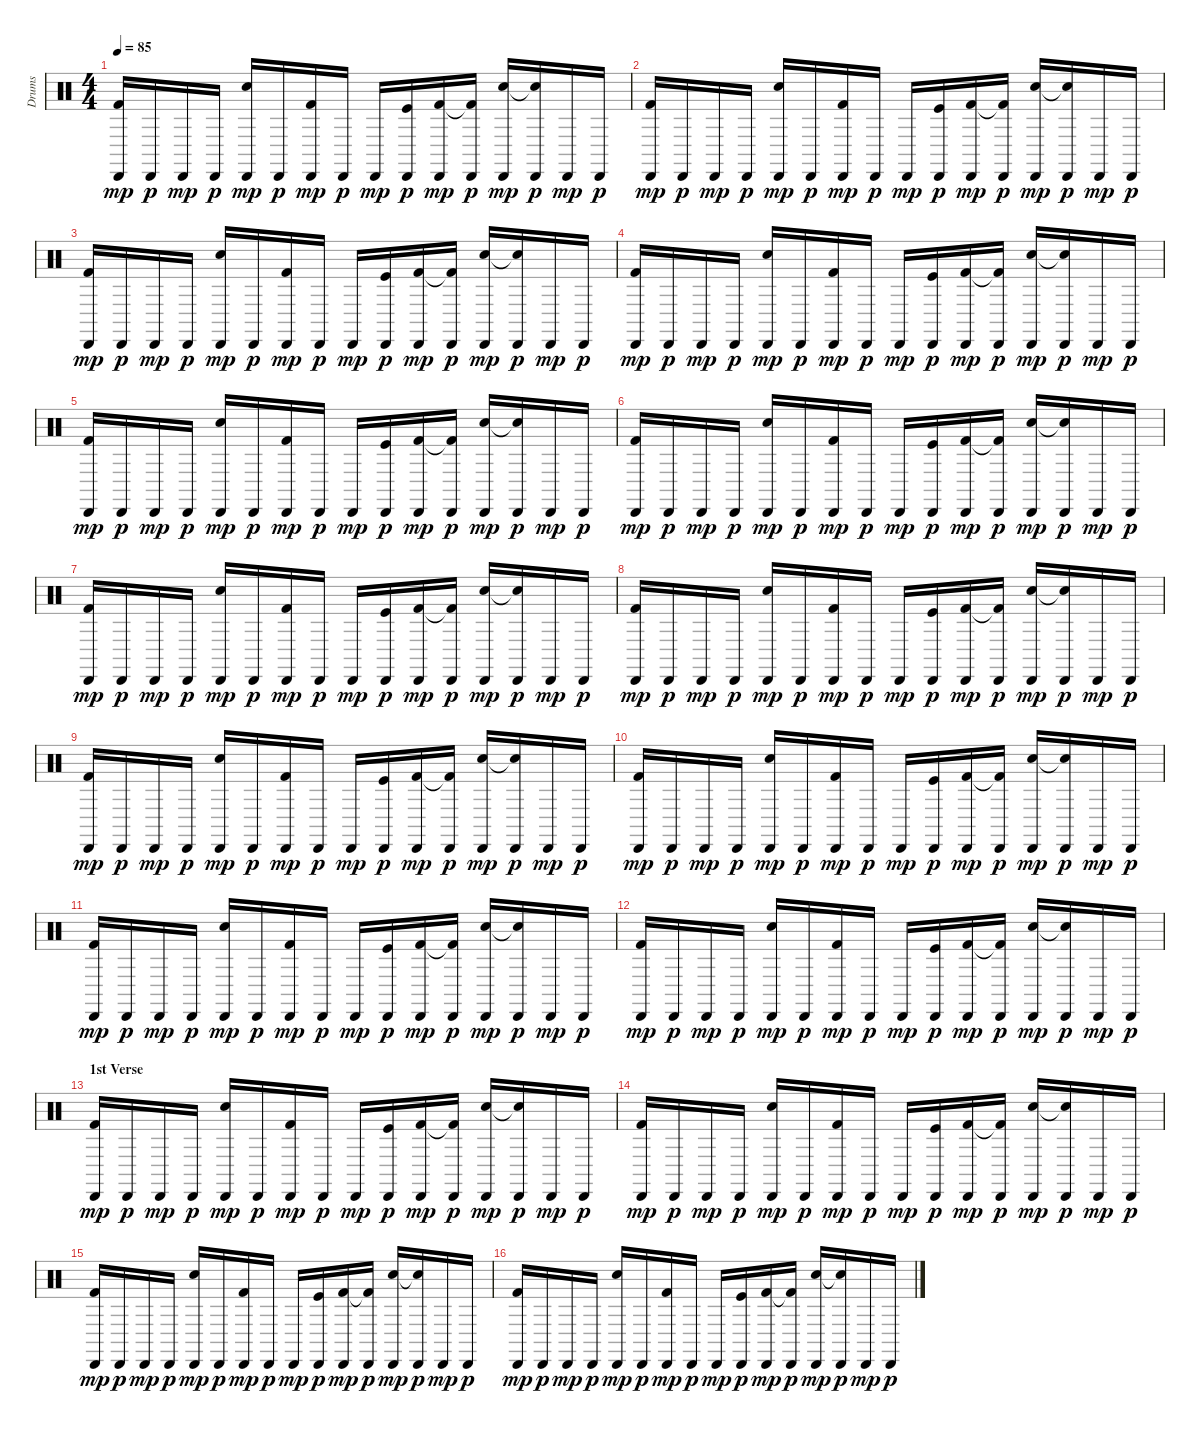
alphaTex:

\track ("Drums" "Drums") {instrument percussion}
\staff {score}
\articulation defaults
\ts (4 4)
\tempo 85
\clef neutral
\ks c
("Kick (hit) 2" "Cabasa (hit)").16{dy mp} "Cabasa (hit)".16{dy p} "Cabasa (hit)".16{dy mp} "Cabasa (hit)".16{dy p} ("Snare (hit) 2" "Cabasa (hit)").16{dy mp} "Cabasa (hit)".16{dy p} ("Kick (hit) 2" "Cabasa (hit)").16{dy mp} "Cabasa (hit)".16{dy p} "Cabasa (hit)".16{dy mp} ("Cabasa (hit)" "Kick (hit)").16{dy p} ("Kick (hit) 2" "Cabasa (hit)").16{dy mp} ("Kick (hit) 2"{t} "Cabasa (hit)").16{dy p} ("Snare (hit) 2" "Cabasa (hit)").16{dy mp} ("Snare (hit) 2"{t} "Cabasa (hit)").16{dy p} "Cabasa (hit)".16{dy mp} "Cabasa (hit)".16{dy p} |
("Kick (hit) 2" "Cabasa (hit)").16{dy mp} "Cabasa (hit)".16{dy p} "Cabasa (hit)".16{dy mp} "Cabasa (hit)".16{dy p} ("Snare (hit) 2" "Cabasa (hit)").16{dy mp} "Cabasa (hit)".16{dy p} ("Kick (hit) 2" "Cabasa (hit)").16{dy mp} "Cabasa (hit)".16{dy p} "Cabasa (hit)".16{dy mp} ("Cabasa (hit)" "Kick (hit)").16{dy p} ("Kick (hit) 2" "Cabasa (hit)").16{dy mp} ("Kick (hit) 2"{t} "Cabasa (hit)").16{dy p} ("Snare (hit) 2" "Cabasa (hit)").16{dy mp} ("Snare (hit) 2"{t} "Cabasa (hit)").16{dy p} "Cabasa (hit)".16{dy mp} "Cabasa (hit)".16{dy p} |
("Kick (hit) 2" "Cabasa (hit)").16{dy mp} "Cabasa (hit)".16{dy p} "Cabasa (hit)".16{dy mp} "Cabasa (hit)".16{dy p} ("Snare (hit) 2" "Cabasa (hit)").16{dy mp} "Cabasa (hit)".16{dy p} ("Kick (hit) 2" "Cabasa (hit)").16{dy mp} "Cabasa (hit)".16{dy p} "Cabasa (hit)".16{dy mp} ("Cabasa (hit)" "Kick (hit)").16{dy p} ("Kick (hit) 2" "Cabasa (hit)").16{dy mp} ("Kick (hit) 2"{t} "Cabasa (hit)").16{dy p} ("Snare (hit) 2" "Cabasa (hit)").16{dy mp} ("Snare (hit) 2"{t} "Cabasa (hit)").16{dy p} "Cabasa (hit)".16{dy mp} "Cabasa (hit)".16{dy p} |
("Kick (hit) 2" "Cabasa (hit)").16{dy mp} "Cabasa (hit)".16{dy p} "Cabasa (hit)".16{dy mp} "Cabasa (hit)".16{dy p} ("Snare (hit) 2" "Cabasa (hit)").16{dy mp} "Cabasa (hit)".16{dy p} ("Kick (hit) 2" "Cabasa (hit)").16{dy mp} "Cabasa (hit)".16{dy p} "Cabasa (hit)".16{dy mp} ("Cabasa (hit)" "Kick (hit)").16{dy p} ("Kick (hit) 2" "Cabasa (hit)").16{dy mp} ("Kick (hit) 2"{t} "Cabasa (hit)").16{dy p} ("Snare (hit) 2" "Cabasa (hit)").16{dy mp} ("Snare (hit) 2"{t} "Cabasa (hit)").16{dy p} "Cabasa (hit)".16{dy mp} "Cabasa (hit)".16{dy p} |
("Kick (hit) 2" "Cabasa (hit)").16{dy mp} "Cabasa (hit)".16{dy p} "Cabasa (hit)".16{dy mp} "Cabasa (hit)".16{dy p} ("Snare (hit) 2" "Cabasa (hit)").16{dy mp} "Cabasa (hit)".16{dy p} ("Kick (hit) 2" "Cabasa (hit)").16{dy mp} "Cabasa (hit)".16{dy p} "Cabasa (hit)".16{dy mp} ("Cabasa (hit)" "Kick (hit)").16{dy p} ("Kick (hit) 2" "Cabasa (hit)").16{dy mp} ("Kick (hit) 2"{t} "Cabasa (hit)").16{dy p} ("Snare (hit) 2" "Cabasa (hit)").16{dy mp} ("Snare (hit) 2"{t} "Cabasa (hit)").16{dy p} "Cabasa (hit)".16{dy mp} "Cabasa (hit)".16{dy p} |
("Kick (hit) 2" "Cabasa (hit)").16{dy mp} "Cabasa (hit)".16{dy p} "Cabasa (hit)".16{dy mp} "Cabasa (hit)".16{dy p} ("Snare (hit) 2" "Cabasa (hit)").16{dy mp} "Cabasa (hit)".16{dy p} ("Kick (hit) 2" "Cabasa (hit)").16{dy mp} "Cabasa (hit)".16{dy p} "Cabasa (hit)".16{dy mp} ("Cabasa (hit)" "Kick (hit)").16{dy p} ("Kick (hit) 2" "Cabasa (hit)").16{dy mp} ("Kick (hit) 2"{t} "Cabasa (hit)").16{dy p} ("Snare (hit) 2" "Cabasa (hit)").16{dy mp} ("Snare (hit) 2"{t} "Cabasa (hit)").16{dy p} "Cabasa (hit)".16{dy mp} "Cabasa (hit)".16{dy p} |
("Kick (hit) 2" "Cabasa (hit)").16{dy mp} "Cabasa (hit)".16{dy p} "Cabasa (hit)".16{dy mp} "Cabasa (hit)".16{dy p} ("Snare (hit) 2" "Cabasa (hit)").16{dy mp} "Cabasa (hit)".16{dy p} ("Kick (hit) 2" "Cabasa (hit)").16{dy mp} "Cabasa (hit)".16{dy p} "Cabasa (hit)".16{dy mp} ("Cabasa (hit)" "Kick (hit)").16{dy p} ("Kick (hit) 2" "Cabasa (hit)").16{dy mp} ("Kick (hit) 2"{t} "Cabasa (hit)").16{dy p} ("Snare (hit) 2" "Cabasa (hit)").16{dy mp} ("Snare (hit) 2"{t} "Cabasa (hit)").16{dy p} "Cabasa (hit)".16{dy mp} "Cabasa (hit)".16{dy p} |
("Kick (hit) 2" "Cabasa (hit)").16{dy mp} "Cabasa (hit)".16{dy p} "Cabasa (hit)".16{dy mp} "Cabasa (hit)".16{dy p} ("Snare (hit) 2" "Cabasa (hit)").16{dy mp} "Cabasa (hit)".16{dy p} ("Kick (hit) 2" "Cabasa (hit)").16{dy mp} "Cabasa (hit)".16{dy p} "Cabasa (hit)".16{dy mp} ("Cabasa (hit)" "Kick (hit)").16{dy p} ("Kick (hit) 2" "Cabasa (hit)").16{dy mp} ("Kick (hit) 2"{t} "Cabasa (hit)").16{dy p} ("Snare (hit) 2" "Cabasa (hit)").16{dy mp} ("Snare (hit) 2"{t} "Cabasa (hit)").16{dy p} "Cabasa (hit)".16{dy mp} "Cabasa (hit)".16{dy p} |
("Kick (hit) 2" "Cabasa (hit)").16{dy mp} "Cabasa (hit)".16{dy p} "Cabasa (hit)".16{dy mp} "Cabasa (hit)".16{dy p} ("Snare (hit) 2" "Cabasa (hit)").16{dy mp} "Cabasa (hit)".16{dy p} ("Kick (hit) 2" "Cabasa (hit)").16{dy mp} "Cabasa (hit)".16{dy p} "Cabasa (hit)".16{dy mp} ("Cabasa (hit)" "Kick (hit)").16{dy p} ("Kick (hit) 2" "Cabasa (hit)").16{dy mp} ("Kick (hit) 2"{t} "Cabasa (hit)").16{dy p} ("Snare (hit) 2" "Cabasa (hit)").16{dy mp} ("Snare (hit) 2"{t} "Cabasa (hit)").16{dy p} "Cabasa (hit)".16{dy mp} "Cabasa (hit)".16{dy p} |
("Kick (hit) 2" "Cabasa (hit)").16{dy mp} "Cabasa (hit)".16{dy p} "Cabasa (hit)".16{dy mp} "Cabasa (hit)".16{dy p} ("Snare (hit) 2" "Cabasa (hit)").16{dy mp} "Cabasa (hit)".16{dy p} ("Kick (hit) 2" "Cabasa (hit)").16{dy mp} "Cabasa (hit)".16{dy p} "Cabasa (hit)".16{dy mp} ("Cabasa (hit)" "Kick (hit)").16{dy p} ("Kick (hit) 2" "Cabasa (hit)").16{dy mp} ("Kick (hit) 2"{t} "Cabasa (hit)").16{dy p} ("Snare (hit) 2" "Cabasa (hit)").16{dy mp} ("Snare (hit) 2"{t} "Cabasa (hit)").16{dy p} "Cabasa (hit)".16{dy mp} "Cabasa (hit)".16{dy p} |
("Kick (hit) 2" "Cabasa (hit)").16{dy mp} "Cabasa (hit)".16{dy p} "Cabasa (hit)".16{dy mp} "Cabasa (hit)".16{dy p} ("Snare (hit) 2" "Cabasa (hit)").16{dy mp} "Cabasa (hit)".16{dy p} ("Kick (hit) 2" "Cabasa (hit)").16{dy mp} "Cabasa (hit)".16{dy p} "Cabasa (hit)".16{dy mp} ("Cabasa (hit)" "Kick (hit)").16{dy p} ("Kick (hit) 2" "Cabasa (hit)").16{dy mp} ("Kick (hit) 2"{t} "Cabasa (hit)").16{dy p} ("Snare (hit) 2" "Cabasa (hit)").16{dy mp} ("Snare (hit) 2"{t} "Cabasa (hit)").16{dy p} "Cabasa (hit)".16{dy mp} "Cabasa (hit)".16{dy p} |
("Kick (hit) 2" "Cabasa (hit)").16{dy mp} "Cabasa (hit)".16{dy p} "Cabasa (hit)".16{dy mp} "Cabasa (hit)".16{dy p} ("Snare (hit) 2" "Cabasa (hit)").16{dy mp} "Cabasa (hit)".16{dy p} ("Kick (hit) 2" "Cabasa (hit)").16{dy mp} "Cabasa (hit)".16{dy p} "Cabasa (hit)".16{dy mp} ("Cabasa (hit)" "Kick (hit)").16{dy p} ("Kick (hit) 2" "Cabasa (hit)").16{dy mp} ("Kick (hit) 2"{t} "Cabasa (hit)").16{dy p} ("Snare (hit) 2" "Cabasa (hit)").16{dy mp} ("Snare (hit) 2"{t} "Cabasa (hit)").16{dy p} "Cabasa (hit)".16{dy mp} "Cabasa (hit)".16{dy p} |
\section ("" "1st Verse")
("Kick (hit) 2" "Cabasa (hit)").16{dy mp} "Cabasa (hit)".16{dy p} "Cabasa (hit)".16{dy mp} "Cabasa (hit)".16{dy p} ("Snare (hit) 2" "Cabasa (hit)").16{dy mp} "Cabasa (hit)".16{dy p} ("Kick (hit) 2" "Cabasa (hit)").16{dy mp} "Cabasa (hit)".16{dy p} "Cabasa (hit)".16{dy mp} ("Cabasa (hit)" "Kick (hit)").16{dy p} ("Kick (hit) 2" "Cabasa (hit)").16{dy mp} ("Kick (hit) 2"{t} "Cabasa (hit)").16{dy p} ("Snare (hit) 2" "Cabasa (hit)").16{dy mp} ("Snare (hit) 2"{t} "Cabasa (hit)").16{dy p} "Cabasa (hit)".16{dy mp} "Cabasa (hit)".16{dy p} |
("Kick (hit) 2" "Cabasa (hit)").16{dy mp} "Cabasa (hit)".16{dy p} "Cabasa (hit)".16{dy mp} "Cabasa (hit)".16{dy p} ("Snare (hit) 2" "Cabasa (hit)").16{dy mp} "Cabasa (hit)".16{dy p} ("Kick (hit) 2" "Cabasa (hit)").16{dy mp} "Cabasa (hit)".16{dy p} "Cabasa (hit)".16{dy mp} ("Cabasa (hit)" "Kick (hit)").16{dy p} ("Kick (hit) 2" "Cabasa (hit)").16{dy mp} ("Kick (hit) 2"{t} "Cabasa (hit)").16{dy p} ("Snare (hit) 2" "Cabasa (hit)").16{dy mp} ("Snare (hit) 2"{t} "Cabasa (hit)").16{dy p} "Cabasa (hit)".16{dy mp} "Cabasa (hit)".16{dy p} |
("Kick (hit) 2" "Cabasa (hit)").16{dy mp} "Cabasa (hit)".16{dy p} "Cabasa (hit)".16{dy mp} "Cabasa (hit)".16{dy p} ("Snare (hit) 2" "Cabasa (hit)").16{dy mp} "Cabasa (hit)".16{dy p} ("Kick (hit) 2" "Cabasa (hit)").16{dy mp} "Cabasa (hit)".16{dy p} "Cabasa (hit)".16{dy mp} ("Cabasa (hit)" "Kick (hit)").16{dy p} ("Kick (hit) 2" "Cabasa (hit)").16{dy mp} ("Kick (hit) 2"{t} "Cabasa (hit)").16{dy p} ("Snare (hit) 2" "Cabasa (hit)").16{dy mp} ("Snare (hit) 2"{t} "Cabasa (hit)").16{dy p} "Cabasa (hit)".16{dy mp} "Cabasa (hit)".16{dy p} |
("Kick (hit) 2" "Cabasa (hit)").16{dy mp} "Cabasa (hit)".16{dy p} "Cabasa (hit)".16{dy mp} "Cabasa (hit)".16{dy p} ("Snare (hit) 2" "Cabasa (hit)").16{dy mp} "Cabasa (hit)".16{dy p} ("Kick (hit) 2" "Cabasa (hit)").16{dy mp} "Cabasa (hit)".16{dy p} "Cabasa (hit)".16{dy mp} ("Cabasa (hit)" "Kick (hit)").16{dy p} ("Kick (hit) 2" "Cabasa (hit)").16{dy mp} ("Kick (hit) 2"{t} "Cabasa (hit)").16{dy p} ("Snare (hit) 2" "Cabasa (hit)").16{dy mp} ("Snare (hit) 2"{t} "Cabasa (hit)").16{dy p} "Cabasa (hit)".16{dy mp} "Cabasa (hit)".16{dy p}
